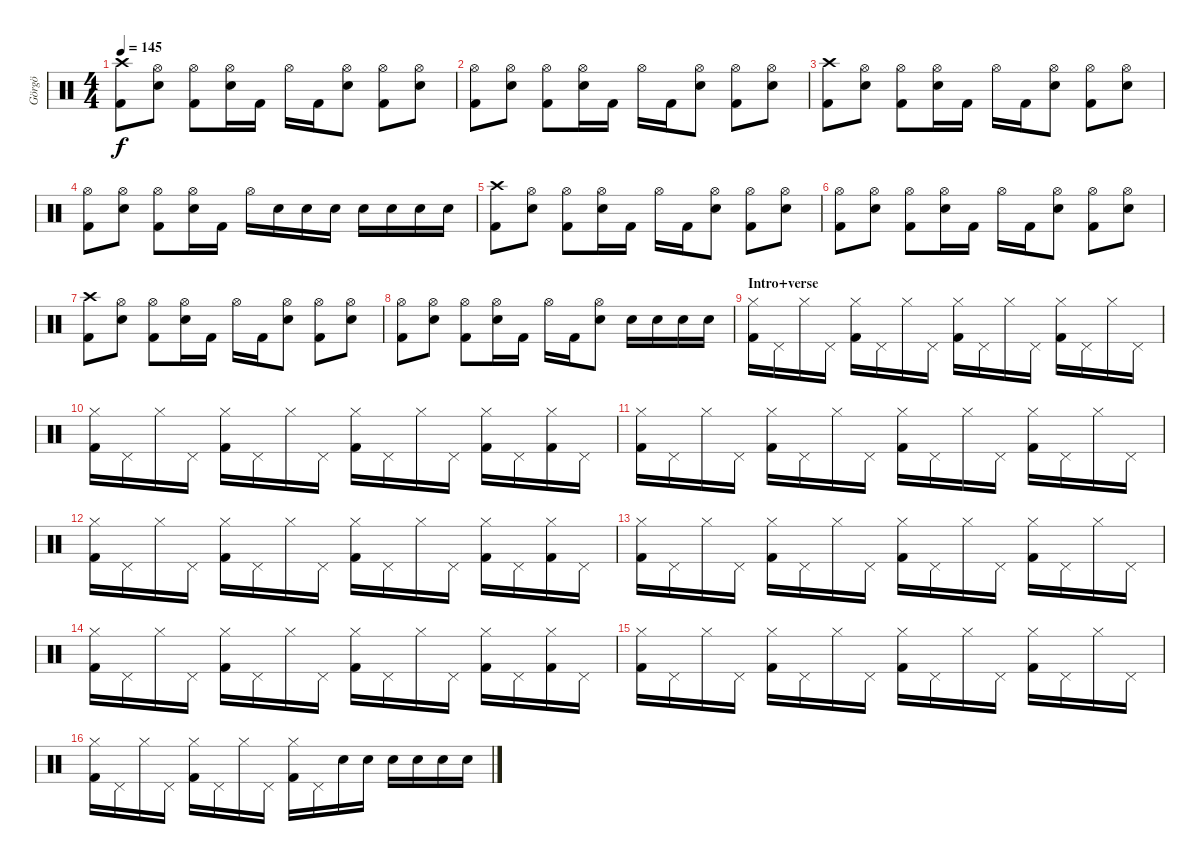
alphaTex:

\track ("Görgö" "Görgö") {instrument percussion}
\staff {score}
\articulation defaults
\ts (4 4)
\tempo 145
\clef neutral
\ks c
("Crash high (hit)" "Kick (hit) 2").8{dy f} ("Hi-Hat (open)" "Snare (hit) 2").8 ("Hi-Hat (open)" "Kick (hit) 2").8 ("Hi-Hat (open)" "Snare (hit) 2").16 "Kick (hit) 2".16 "Hi-Hat (open)".16 "Kick (hit) 2".16 ("Hi-Hat (open)" "Snare (hit) 2").8 ("Hi-Hat (open)" "Kick (hit) 2").8 ("Hi-Hat (open)" "Snare (hit) 2").8 |
("Hi-Hat (open)" "Kick (hit) 2").8 ("Hi-Hat (open)" "Snare (hit) 2").8 ("Hi-Hat (open)" "Kick (hit) 2").8 ("Hi-Hat (open)" "Snare (hit) 2").16 "Kick (hit) 2".16 "Hi-Hat (open)".16 "Kick (hit) 2".16 ("Hi-Hat (open)" "Snare (hit) 2").8 ("Hi-Hat (open)" "Kick (hit) 2").8 ("Hi-Hat (open)" "Snare (hit) 2").8 |
("Crash high (hit)" "Kick (hit) 2").8 ("Hi-Hat (open)" "Snare (hit) 2").8 ("Hi-Hat (open)" "Kick (hit) 2").8 ("Hi-Hat (open)" "Snare (hit) 2").16 "Kick (hit) 2".16 "Hi-Hat (open)".16 "Kick (hit) 2".16 ("Hi-Hat (open)" "Snare (hit) 2").8 ("Hi-Hat (open)" "Kick (hit) 2").8 ("Hi-Hat (open)" "Snare (hit) 2").8 |
("Hi-Hat (open)" "Kick (hit) 2").8 ("Hi-Hat (open)" "Snare (hit) 2").8 ("Hi-Hat (open)" "Kick (hit) 2").8 ("Hi-Hat (open)" "Snare (hit) 2").16 "Kick (hit) 2".16 "Hi-Hat (open)".16 "Snare (hit) 2".16 "Snare (hit) 2".16 "Snare (hit) 2".16 "Snare (hit) 2".16 "Snare (hit) 2".16 "Snare (hit) 2".16 "Snare (hit) 2".16 |
("Crash high (hit)" "Kick (hit) 2").8 ("Hi-Hat (open)" "Snare (hit) 2").8 ("Hi-Hat (open)" "Kick (hit) 2").8 ("Hi-Hat (open)" "Snare (hit) 2").16 "Kick (hit) 2".16 "Hi-Hat (open)".16 "Kick (hit) 2".16 ("Hi-Hat (open)" "Snare (hit) 2").8 ("Hi-Hat (open)" "Kick (hit) 2").8 ("Hi-Hat (open)" "Snare (hit) 2").8 |
("Hi-Hat (open)" "Kick (hit) 2").8 ("Hi-Hat (open)" "Snare (hit) 2").8 ("Hi-Hat (open)" "Kick (hit) 2").8 ("Hi-Hat (open)" "Snare (hit) 2").16 "Kick (hit) 2".16 "Hi-Hat (open)".16 "Kick (hit) 2".16 ("Hi-Hat (open)" "Snare (hit) 2").8 ("Hi-Hat (open)" "Kick (hit) 2").8 ("Hi-Hat (open)" "Snare (hit) 2").8 |
("Crash high (hit)" "Kick (hit) 2").8 ("Hi-Hat (open)" "Snare (hit) 2").8 ("Hi-Hat (open)" "Kick (hit) 2").8 ("Hi-Hat (open)" "Snare (hit) 2").16 "Kick (hit) 2".16 "Hi-Hat (open)".16 "Kick (hit) 2".16 ("Hi-Hat (open)" "Snare (hit) 2").8 ("Hi-Hat (open)" "Kick (hit) 2").8 ("Hi-Hat (open)" "Snare (hit) 2").8 |
("Hi-Hat (open)" "Kick (hit) 2").8 ("Hi-Hat (open)" "Snare (hit) 2").8 ("Hi-Hat (open)" "Kick (hit) 2").8 ("Hi-Hat (open)" "Snare (hit) 2").16 "Kick (hit) 2".16 "Hi-Hat (open)".16 "Kick (hit) 2".16 ("Hi-Hat (open)" "Snare (hit) 2").8 "Snare (hit) 2".16 "Snare (hit) 2".16 "Snare (hit) 2".16 "Snare (hit) 2".16 |
\section ("" "Intro+verse")
("Hi-Hat (closed)" "Kick (hit) 2").16 "Pedal Hi-Hat (hit)".16 "Hi-Hat (closed)".16 "Pedal Hi-Hat (hit)".16 ("Hi-Hat (closed)" "Kick (hit) 2").16 "Pedal Hi-Hat (hit)".16 "Hi-Hat (closed)".16 "Pedal Hi-Hat (hit)".16 ("Hi-Hat (closed)" "Kick (hit) 2").16 "Pedal Hi-Hat (hit)".16 "Hi-Hat (closed)".16 "Pedal Hi-Hat (hit)".16 ("Hi-Hat (closed)" "Kick (hit) 2").16 "Pedal Hi-Hat (hit)".16 "Hi-Hat (closed)".16 "Pedal Hi-Hat (hit)".16 |
("Hi-Hat (closed)" "Kick (hit) 2").16 "Pedal Hi-Hat (hit)".16 "Hi-Hat (closed)".16 "Pedal Hi-Hat (hit)".16 ("Hi-Hat (closed)" "Kick (hit) 2").16 "Pedal Hi-Hat (hit)".16 "Hi-Hat (closed)".16 "Pedal Hi-Hat (hit)".16 ("Hi-Hat (closed)" "Kick (hit) 2").16 "Pedal Hi-Hat (hit)".16 "Hi-Hat (closed)".16 "Pedal Hi-Hat (hit)".16 ("Hi-Hat (closed)" "Kick (hit) 2").16 "Pedal Hi-Hat (hit)".16 ("Hi-Hat (closed)" "Kick (hit) 2").16 "Pedal Hi-Hat (hit)".16 |
("Hi-Hat (closed)" "Kick (hit) 2").16 "Pedal Hi-Hat (hit)".16 "Hi-Hat (closed)".16 "Pedal Hi-Hat (hit)".16 ("Hi-Hat (closed)" "Kick (hit) 2").16 "Pedal Hi-Hat (hit)".16 "Hi-Hat (closed)".16 "Pedal Hi-Hat (hit)".16 ("Hi-Hat (closed)" "Kick (hit) 2").16 "Pedal Hi-Hat (hit)".16 "Hi-Hat (closed)".16 "Pedal Hi-Hat (hit)".16 ("Hi-Hat (closed)" "Kick (hit) 2").16 "Pedal Hi-Hat (hit)".16 "Hi-Hat (closed)".16 "Pedal Hi-Hat (hit)".16 |
("Hi-Hat (closed)" "Kick (hit) 2").16 "Pedal Hi-Hat (hit)".16 "Hi-Hat (closed)".16 "Pedal Hi-Hat (hit)".16 ("Hi-Hat (closed)" "Kick (hit) 2").16 "Pedal Hi-Hat (hit)".16 "Hi-Hat (closed)".16 "Pedal Hi-Hat (hit)".16 ("Hi-Hat (closed)" "Kick (hit) 2").16 "Pedal Hi-Hat (hit)".16 "Hi-Hat (closed)".16 "Pedal Hi-Hat (hit)".16 ("Hi-Hat (closed)" "Kick (hit) 2").16 "Pedal Hi-Hat (hit)".16 ("Hi-Hat (closed)" "Kick (hit) 2").16 "Pedal Hi-Hat (hit)".16 |
("Hi-Hat (closed)" "Kick (hit) 2").16 "Pedal Hi-Hat (hit)".16 "Hi-Hat (closed)".16 "Pedal Hi-Hat (hit)".16 ("Hi-Hat (closed)" "Kick (hit) 2").16 "Pedal Hi-Hat (hit)".16 "Hi-Hat (closed)".16 "Pedal Hi-Hat (hit)".16 ("Hi-Hat (closed)" "Kick (hit) 2").16 "Pedal Hi-Hat (hit)".16 "Hi-Hat (closed)".16 "Pedal Hi-Hat (hit)".16 ("Hi-Hat (closed)" "Kick (hit) 2").16 "Pedal Hi-Hat (hit)".16 "Hi-Hat (closed)".16 "Pedal Hi-Hat (hit)".16 |
("Hi-Hat (closed)" "Kick (hit) 2").16 "Pedal Hi-Hat (hit)".16 "Hi-Hat (closed)".16 "Pedal Hi-Hat (hit)".16 ("Hi-Hat (closed)" "Kick (hit) 2").16 "Pedal Hi-Hat (hit)".16 "Hi-Hat (closed)".16 "Pedal Hi-Hat (hit)".16 ("Hi-Hat (closed)" "Kick (hit) 2").16 "Pedal Hi-Hat (hit)".16 "Hi-Hat (closed)".16 "Pedal Hi-Hat (hit)".16 ("Hi-Hat (closed)" "Kick (hit) 2").16 "Pedal Hi-Hat (hit)".16 ("Hi-Hat (closed)" "Kick (hit) 2").16 "Pedal Hi-Hat (hit)".16 |
("Hi-Hat (closed)" "Kick (hit) 2").16 "Pedal Hi-Hat (hit)".16 "Hi-Hat (closed)".16 "Pedal Hi-Hat (hit)".16 ("Hi-Hat (closed)" "Kick (hit) 2").16 "Pedal Hi-Hat (hit)".16 "Hi-Hat (closed)".16 "Pedal Hi-Hat (hit)".16 ("Hi-Hat (closed)" "Kick (hit) 2").16 "Pedal Hi-Hat (hit)".16 "Hi-Hat (closed)".16 "Pedal Hi-Hat (hit)".16 ("Hi-Hat (closed)" "Kick (hit) 2").16 "Pedal Hi-Hat (hit)".16 "Hi-Hat (closed)".16 "Pedal Hi-Hat (hit)".16 |
("Hi-Hat (closed)" "Kick (hit) 2").16 "Pedal Hi-Hat (hit)".16 "Hi-Hat (closed)".16 "Pedal Hi-Hat (hit)".16 ("Hi-Hat (closed)" "Kick (hit) 2").16 "Pedal Hi-Hat (hit)".16 "Hi-Hat (closed)".16 "Pedal Hi-Hat (hit)".16 ("Hi-Hat (closed)" "Kick (hit) 2").16 "Pedal Hi-Hat (hit)".16 "Snare (hit) 2".16 "Snare (hit) 2".16 "Snare (hit) 2".16 "Snare (hit) 2".16 "Snare (hit) 2".16 "Snare (hit) 2".16
